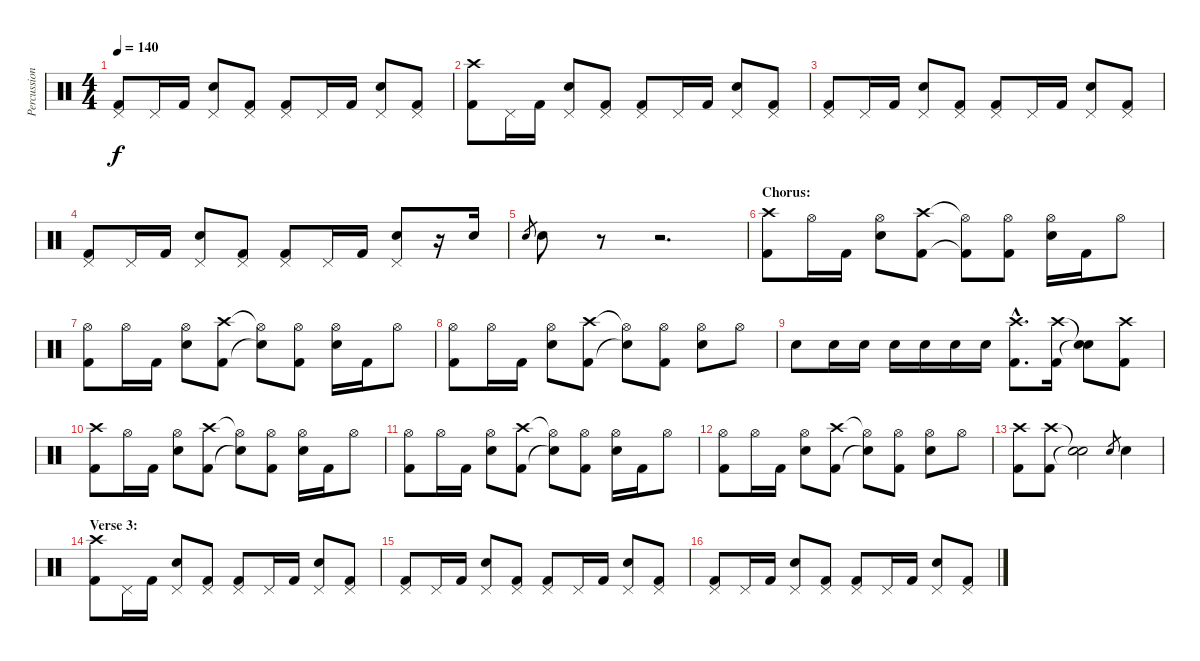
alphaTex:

\track ("Percussion" "Percussion") {instrument percussion}
\staff {score}
\articulation defaults
\ts (4 4)
\tempo 140
\clef neutral
\ks c
("Pedal Hi-Hat (hit)" "Kick (hit) 2").8{dy f} "Pedal Hi-Hat (hit)".16 "Kick (hit) 2".16 ("Pedal Hi-Hat (hit)" "Snare (hit) 2").8 ("Pedal Hi-Hat (hit)" "Kick (hit) 2").8 ("Pedal Hi-Hat (hit)" "Kick (hit) 2").8 "Pedal Hi-Hat (hit)".16 "Kick (hit) 2".16 ("Pedal Hi-Hat (hit)" "Snare (hit) 2").8 ("Pedal Hi-Hat (hit)" "Kick (hit) 2").8 |
("Crash high (hit)" "Kick (hit) 2").8 "Pedal Hi-Hat (hit)".16 "Kick (hit) 2".16 ("Pedal Hi-Hat (hit)" "Snare (hit) 2").8 ("Pedal Hi-Hat (hit)" "Kick (hit) 2").8 ("Pedal Hi-Hat (hit)" "Kick (hit) 2").8 "Pedal Hi-Hat (hit)".16 "Kick (hit) 2".16 ("Pedal Hi-Hat (hit)" "Snare (hit) 2").8 ("Pedal Hi-Hat (hit)" "Kick (hit) 2").8 |
("Pedal Hi-Hat (hit)" "Kick (hit) 2").8 "Pedal Hi-Hat (hit)".16 "Kick (hit) 2".16 ("Pedal Hi-Hat (hit)" "Snare (hit) 2").8 ("Pedal Hi-Hat (hit)" "Kick (hit) 2").8 ("Pedal Hi-Hat (hit)" "Kick (hit) 2").8 "Pedal Hi-Hat (hit)".16 "Kick (hit) 2".16 ("Pedal Hi-Hat (hit)" "Snare (hit) 2").8 ("Pedal Hi-Hat (hit)" "Kick (hit) 2").8 |
("Pedal Hi-Hat (hit)" "Kick (hit) 2").8 "Pedal Hi-Hat (hit)".16 "Kick (hit) 2".16 ("Pedal Hi-Hat (hit)" "Snare (hit) 2").8 ("Pedal Hi-Hat (hit)" "Kick (hit) 2").8 ("Pedal Hi-Hat (hit)" "Kick (hit) 2").8 "Pedal Hi-Hat (hit)".16 "Kick (hit) 2".16 ("Pedal Hi-Hat (hit)" "Snare (hit) 2").8 r.16 "Snare (hit) 2".16 |
"Snare (hit) 2".8{gr} "Snare (hit) 2".8 r.8 r.2{d} |
\section ("" "Chorus:")
("Crash high (hit)" "Kick (hit) 2").8 "Hi-Hat (open)".16 "Kick (hit) 2".16 ("Hi-Hat (open)" "Snare (hit) 2").8 ("Crash high (hit)" "Kick (hit) 2").8 ("Hi-Hat (open)"{t} "Kick (hit) 2"{t}).8 ("Hi-Hat (open)" "Kick (hit) 2").8 ("Hi-Hat (open)" "Snare (hit) 2").16 "Kick (hit) 2".16 "Hi-Hat (open)".8 |
("Hi-Hat (open)" "Kick (hit) 2").8 "Hi-Hat (open)".16 "Kick (hit) 2".16 ("Hi-Hat (open)" "Snare (hit) 2").8 ("Crash high (hit)" "Kick (hit) 2").8 ("Hi-Hat (open)"{t} "Snare (hit)"{t}).8 ("Hi-Hat (open)" "Kick (hit) 2").8 ("Hi-Hat (open)" "Snare (hit) 2").16 "Kick (hit) 2".16 "Hi-Hat (open)".8 |
("Hi-Hat (open)" "Kick (hit) 2").8 "Hi-Hat (open)".16 "Kick (hit) 2".16 ("Hi-Hat (open)" "Snare (hit) 2").8 ("Crash high (hit)" "Kick (hit) 2").8 ("Hi-Hat (open)"{t} "Snare (hit)"{t}).8 ("Hi-Hat (open)" "Kick (hit) 2").8 ("Hi-Hat (open)" "Snare (hit) 2").8 "Hi-Hat (open)".8 |
"Snare (hit) 2".8 "Snare (hit) 2".16 "Snare (hit) 2".16 "Snare (hit) 2".16 "Snare (hit) 2".16 "Snare (hit) 2".16 "Snare (hit) 2".16 ("Crash high (hit)"{hac} "Kick (hit) 2"{hac}).8{d} ("Crash high (hit)" "Kick (hit) 2").16 ("Snare (hit)"{t} "Snare (hit)"{t}).8 ("Crash high (hit)" "Kick (hit) 2").8 |
("Crash high (hit)" "Kick (hit) 2").8 "Hi-Hat (open)".16 "Kick (hit) 2".16 ("Hi-Hat (open)" "Snare (hit) 2").8 ("Crash high (hit)" "Kick (hit) 2").8 ("Hi-Hat (open)"{t} "Snare (hit)"{t}).8 ("Hi-Hat (open)" "Kick (hit) 2").8 ("Hi-Hat (open)" "Snare (hit) 2").16 "Kick (hit) 2".16 "Hi-Hat (open)".8 |
("Hi-Hat (open)" "Kick (hit) 2").8 "Hi-Hat (open)".16 "Kick (hit) 2".16 ("Hi-Hat (open)" "Snare (hit) 2").8 ("Crash high (hit)" "Kick (hit) 2").8 ("Hi-Hat (open)"{t} "Snare (hit)"{t}).8 ("Hi-Hat (open)" "Kick (hit) 2").8 ("Hi-Hat (open)" "Snare (hit) 2").16 "Kick (hit) 2".16 "Hi-Hat (open)".8 |
("Hi-Hat (open)" "Kick (hit) 2").8 "Hi-Hat (open)".16 "Kick (hit) 2".16 ("Hi-Hat (open)" "Snare (hit) 2").8 ("Crash high (hit)" "Kick (hit) 2").8 ("Hi-Hat (open)"{t} "Snare (hit)"{t}).8 ("Hi-Hat (open)" "Kick (hit) 2").8 ("Hi-Hat (open)" "Snare (hit) 2").8 "Hi-Hat (open)".8 |
("Crash high (hit)" "Kick (hit) 2").8 ("Crash high (hit)" "Kick (hit) 2").8 ("Snare (hit)"{t} "Snare (hit)"{t}).2 "Snare (hit) 2".8{gr} "Snare (hit) 2".4 |
\section ("" "Verse 3:")
("Crash high (hit)" "Kick (hit) 2").8 "Pedal Hi-Hat (hit)".16 "Kick (hit) 2".16 ("Pedal Hi-Hat (hit)" "Snare (hit) 2").8 ("Pedal Hi-Hat (hit)" "Kick (hit) 2").8 ("Pedal Hi-Hat (hit)" "Kick (hit) 2").8 "Pedal Hi-Hat (hit)".16 "Kick (hit) 2".16 ("Pedal Hi-Hat (hit)" "Snare (hit) 2").8 ("Pedal Hi-Hat (hit)" "Kick (hit) 2").8 |
("Pedal Hi-Hat (hit)" "Kick (hit) 2").8 "Pedal Hi-Hat (hit)".16 "Kick (hit) 2".16 ("Pedal Hi-Hat (hit)" "Snare (hit) 2").8 ("Pedal Hi-Hat (hit)" "Kick (hit) 2").8 ("Pedal Hi-Hat (hit)" "Kick (hit) 2").8 "Pedal Hi-Hat (hit)".16 "Kick (hit) 2".16 ("Pedal Hi-Hat (hit)" "Snare (hit) 2").8 ("Pedal Hi-Hat (hit)" "Kick (hit) 2").8 |
("Pedal Hi-Hat (hit)" "Kick (hit) 2").8 "Pedal Hi-Hat (hit)".16 "Kick (hit) 2".16 ("Pedal Hi-Hat (hit)" "Snare (hit) 2").8 ("Pedal Hi-Hat (hit)" "Kick (hit) 2").8 ("Pedal Hi-Hat (hit)" "Kick (hit) 2").8 "Pedal Hi-Hat (hit)".16 "Kick (hit) 2".16 ("Pedal Hi-Hat (hit)" "Snare (hit) 2").8 ("Pedal Hi-Hat (hit)" "Kick (hit) 2").8
